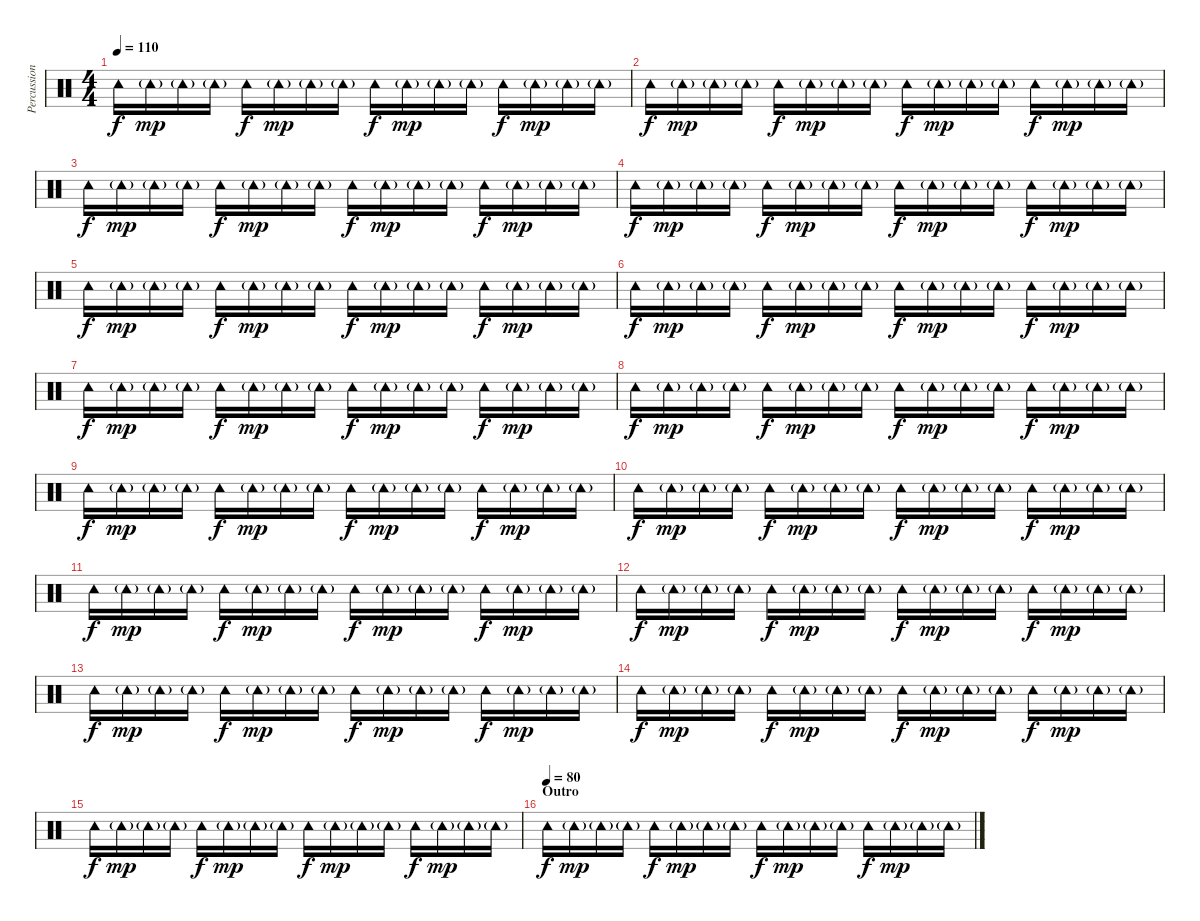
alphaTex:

\track ("Percussion" "Percussion") {instrument percussion}
\staff {score}
\articulation defaults
\ts (4 4)
\tempo 110
\clef neutral
\ks c "Tambourine (hit)".16{dy f} "Tambourine (hit)"{g}.16{dy mp} "Tambourine (hit)"{g}.16 "Tambourine (hit)"{g}.16 "Tambourine (hit)".16{dy f} "Tambourine (hit)"{g}.16{dy mp} "Tambourine (hit)"{g}.16 "Tambourine (hit)"{g}.16 "Tambourine (hit)".16{dy f} "Tambourine (hit)"{g}.16{dy mp} "Tambourine (hit)"{g}.16 "Tambourine (hit)"{g}.16 "Tambourine (hit)".16{dy f} "Tambourine (hit)"{g}.16{dy mp} "Tambourine (hit)"{g}.16 "Tambourine (hit)"{g}.16
|
"Tambourine (hit)".16{dy f} "Tambourine (hit)"{g}.16{dy mp} "Tambourine (hit)"{g}.16 "Tambourine (hit)"{g}.16 "Tambourine (hit)".16{dy f} "Tambourine (hit)"{g}.16{dy mp} "Tambourine (hit)"{g}.16 "Tambourine (hit)"{g}.16 "Tambourine (hit)".16{dy f} "Tambourine (hit)"{g}.16{dy mp} "Tambourine (hit)"{g}.16 "Tambourine (hit)"{g}.16 "Tambourine (hit)".16{dy f} "Tambourine (hit)"{g}.16{dy mp} "Tambourine (hit)"{g}.16 "Tambourine (hit)"{g}.16 |
"Tambourine (hit)".16{dy f} "Tambourine (hit)"{g}.16{dy mp} "Tambourine (hit)"{g}.16 "Tambourine (hit)"{g}.16 "Tambourine (hit)".16{dy f} "Tambourine (hit)"{g}.16{dy mp} "Tambourine (hit)"{g}.16 "Tambourine (hit)"{g}.16 "Tambourine (hit)".16{dy f} "Tambourine (hit)"{g}.16{dy mp} "Tambourine (hit)"{g}.16 "Tambourine (hit)"{g}.16 "Tambourine (hit)".16{dy f} "Tambourine (hit)"{g}.16{dy mp} "Tambourine (hit)"{g}.16 "Tambourine (hit)"{g}.16 |
"Tambourine (hit)".16{dy f} "Tambourine (hit)"{g}.16{dy mp} "Tambourine (hit)"{g}.16 "Tambourine (hit)"{g}.16 "Tambourine (hit)".16{dy f} "Tambourine (hit)"{g}.16{dy mp} "Tambourine (hit)"{g}.16 "Tambourine (hit)"{g}.16 "Tambourine (hit)".16{dy f} "Tambourine (hit)"{g}.16{dy mp} "Tambourine (hit)"{g}.16 "Tambourine (hit)"{g}.16 "Tambourine (hit)".16{dy f} "Tambourine (hit)"{g}.16{dy mp} "Tambourine (hit)"{g}.16 "Tambourine (hit)"{g}.16 |
"Tambourine (hit)".16{dy f} "Tambourine (hit)"{g}.16{dy mp} "Tambourine (hit)"{g}.16 "Tambourine (hit)"{g}.16 "Tambourine (hit)".16{dy f} "Tambourine (hit)"{g}.16{dy mp} "Tambourine (hit)"{g}.16 "Tambourine (hit)"{g}.16 "Tambourine (hit)".16{dy f} "Tambourine (hit)"{g}.16{dy mp} "Tambourine (hit)"{g}.16 "Tambourine (hit)"{g}.16 "Tambourine (hit)".16{dy f} "Tambourine (hit)"{g}.16{dy mp} "Tambourine (hit)"{g}.16 "Tambourine (hit)"{g}.16 |
"Tambourine (hit)".16{dy f} "Tambourine (hit)"{g}.16{dy mp} "Tambourine (hit)"{g}.16 "Tambourine (hit)"{g}.16 "Tambourine (hit)".16{dy f} "Tambourine (hit)"{g}.16{dy mp} "Tambourine (hit)"{g}.16 "Tambourine (hit)"{g}.16 "Tambourine (hit)".16{dy f} "Tambourine (hit)"{g}.16{dy mp} "Tambourine (hit)"{g}.16 "Tambourine (hit)"{g}.16 "Tambourine (hit)".16{dy f} "Tambourine (hit)"{g}.16{dy mp} "Tambourine (hit)"{g}.16 "Tambourine (hit)"{g}.16 |
"Tambourine (hit)".16{dy f} "Tambourine (hit)"{g}.16{dy mp} "Tambourine (hit)"{g}.16 "Tambourine (hit)"{g}.16 "Tambourine (hit)".16{dy f} "Tambourine (hit)"{g}.16{dy mp} "Tambourine (hit)"{g}.16 "Tambourine (hit)"{g}.16 "Tambourine (hit)".16{dy f} "Tambourine (hit)"{g}.16{dy mp} "Tambourine (hit)"{g}.16 "Tambourine (hit)"{g}.16 "Tambourine (hit)".16{dy f} "Tambourine (hit)"{g}.16{dy mp} "Tambourine (hit)"{g}.16 "Tambourine (hit)"{g}.16 |
"Tambourine (hit)".16{dy f} "Tambourine (hit)"{g}.16{dy mp} "Tambourine (hit)"{g}.16 "Tambourine (hit)"{g}.16 "Tambourine (hit)".16{dy f} "Tambourine (hit)"{g}.16{dy mp} "Tambourine (hit)"{g}.16 "Tambourine (hit)"{g}.16 "Tambourine (hit)".16{dy f} "Tambourine (hit)"{g}.16{dy mp} "Tambourine (hit)"{g}.16 "Tambourine (hit)"{g}.16 "Tambourine (hit)".16{dy f} "Tambourine (hit)"{g}.16{dy mp} "Tambourine (hit)"{g}.16 "Tambourine (hit)"{g}.16 |
"Tambourine (hit)".16{dy f} "Tambourine (hit)"{g}.16{dy mp} "Tambourine (hit)"{g}.16 "Tambourine (hit)"{g}.16 "Tambourine (hit)".16{dy f} "Tambourine (hit)"{g}.16{dy mp} "Tambourine (hit)"{g}.16 "Tambourine (hit)"{g}.16 "Tambourine (hit)".16{dy f} "Tambourine (hit)"{g}.16{dy mp} "Tambourine (hit)"{g}.16 "Tambourine (hit)"{g}.16 "Tambourine (hit)".16{dy f} "Tambourine (hit)"{g}.16{dy mp} "Tambourine (hit)"{g}.16 "Tambourine (hit)"{g}.16 |
"Tambourine (hit)".16{dy f} "Tambourine (hit)"{g}.16{dy mp} "Tambourine (hit)"{g}.16 "Tambourine (hit)"{g}.16 "Tambourine (hit)".16{dy f} "Tambourine (hit)"{g}.16{dy mp} "Tambourine (hit)"{g}.16 "Tambourine (hit)"{g}.16 "Tambourine (hit)".16{dy f} "Tambourine (hit)"{g}.16{dy mp} "Tambourine (hit)"{g}.16 "Tambourine (hit)"{g}.16 "Tambourine (hit)".16{dy f} "Tambourine (hit)"{g}.16{dy mp} "Tambourine (hit)"{g}.16 "Tambourine (hit)"{g}.16 |
"Tambourine (hit)".16{dy f} "Tambourine (hit)"{g}.16{dy mp} "Tambourine (hit)"{g}.16 "Tambourine (hit)"{g}.16 "Tambourine (hit)".16{dy f} "Tambourine (hit)"{g}.16{dy mp} "Tambourine (hit)"{g}.16 "Tambourine (hit)"{g}.16 "Tambourine (hit)".16{dy f} "Tambourine (hit)"{g}.16{dy mp} "Tambourine (hit)"{g}.16 "Tambourine (hit)"{g}.16 "Tambourine (hit)".16{dy f} "Tambourine (hit)"{g}.16{dy mp} "Tambourine (hit)"{g}.16 "Tambourine (hit)"{g}.16 |
"Tambourine (hit)".16{dy f} "Tambourine (hit)"{g}.16{dy mp} "Tambourine (hit)"{g}.16 "Tambourine (hit)"{g}.16 "Tambourine (hit)".16{dy f} "Tambourine (hit)"{g}.16{dy mp} "Tambourine (hit)"{g}.16 "Tambourine (hit)"{g}.16 "Tambourine (hit)".16{dy f} "Tambourine (hit)"{g}.16{dy mp} "Tambourine (hit)"{g}.16 "Tambourine (hit)"{g}.16 "Tambourine (hit)".16{dy f} "Tambourine (hit)"{g}.16{dy mp} "Tambourine (hit)"{g}.16 "Tambourine (hit)"{g}.16 |
"Tambourine (hit)".16{dy f} "Tambourine (hit)"{g}.16{dy mp} "Tambourine (hit)"{g}.16 "Tambourine (hit)"{g}.16 "Tambourine (hit)".16{dy f} "Tambourine (hit)"{g}.16{dy mp} "Tambourine (hit)"{g}.16 "Tambourine (hit)"{g}.16 "Tambourine (hit)".16{dy f} "Tambourine (hit)"{g}.16{dy mp} "Tambourine (hit)"{g}.16 "Tambourine (hit)"{g}.16 "Tambourine (hit)".16{dy f} "Tambourine (hit)"{g}.16{dy mp} "Tambourine (hit)"{g}.16 "Tambourine (hit)"{g}.16 |
"Tambourine (hit)".16{dy f} "Tambourine (hit)"{g}.16{dy mp} "Tambourine (hit)"{g}.16 "Tambourine (hit)"{g}.16 "Tambourine (hit)".16{dy f} "Tambourine (hit)"{g}.16{dy mp} "Tambourine (hit)"{g}.16 "Tambourine (hit)"{g}.16 "Tambourine (hit)".16{dy f} "Tambourine (hit)"{g}.16{dy mp} "Tambourine (hit)"{g}.16 "Tambourine (hit)"{g}.16 "Tambourine (hit)".16{dy f} "Tambourine (hit)"{g}.16{dy mp} "Tambourine (hit)"{g}.16 "Tambourine (hit)"{g}.16 |
"Tambourine (hit)".16{dy f} "Tambourine (hit)"{g}.16{dy mp} "Tambourine (hit)"{g}.16 "Tambourine (hit)"{g}.16 "Tambourine (hit)".16{dy f} "Tambourine (hit)"{g}.16{dy mp} "Tambourine (hit)"{g}.16 "Tambourine (hit)"{g}.16 "Tambourine (hit)".16{dy f} "Tambourine (hit)"{g}.16{dy mp} "Tambourine (hit)"{g}.16 "Tambourine (hit)"{g}.16 "Tambourine (hit)".16{dy f} "Tambourine (hit)"{g}.16{dy mp} "Tambourine (hit)"{g}.16 "Tambourine (hit)"{g}.16 |
\section ("" "Outro")
\tempo (80)
"Tambourine (hit)".16{dy f} "Tambourine (hit)"{g}.16{dy mp} "Tambourine (hit)"{g}.16 "Tambourine (hit)"{g}.16 "Tambourine (hit)".16{dy f} "Tambourine (hit)"{g}.16{dy mp} "Tambourine (hit)"{g}.16 "Tambourine (hit)"{g}.16 "Tambourine (hit)".16{dy f} "Tambourine (hit)"{g}.16{dy mp} "Tambourine (hit)"{g}.16 "Tambourine (hit)"{g}.16 "Tambourine (hit)".16{dy f} "Tambourine (hit)"{g}.16{dy mp} "Tambourine (hit)"{g}.16 "Tambourine (hit)"{g}.16
